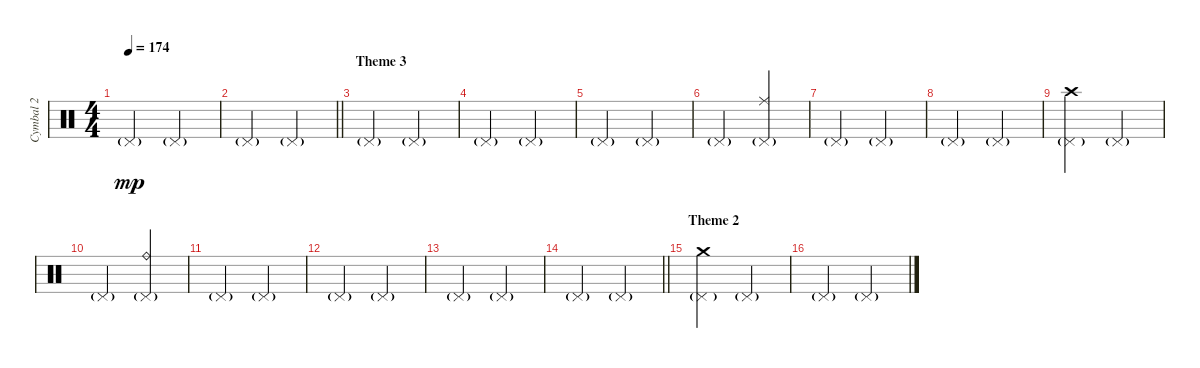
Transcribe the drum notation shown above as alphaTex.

\track ("Cymbal 2" "Cymbal 2") {instrument percussion}
\staff {score}
\articulation defaults
\ts (4 4)
\tempo 174
\clef neutral
\ks c "Pedal Hi-Hat (hit)"{g}.2{dy mp} "Pedal Hi-Hat (hit)"{g}.2
|
\barLineRight lightlight "Pedal Hi-Hat (hit)"{g}.2 "Pedal Hi-Hat (hit)"{g}.2
|
\section ("" "Theme 3")
"Pedal Hi-Hat (hit)"{g}.2 "Pedal Hi-Hat (hit)"{g}.2 |
"Pedal Hi-Hat (hit)"{g}.2 "Pedal Hi-Hat (hit)"{g}.2 |
"Pedal Hi-Hat (hit)"{g}.2 "Pedal Hi-Hat (hit)"{g}.2 |
"Pedal Hi-Hat (hit)"{g}.2 ("Pedal Hi-Hat (hit)"{g} "Ride (middle)").2 |
"Pedal Hi-Hat (hit)"{g}.2 "Pedal Hi-Hat (hit)"{g}.2 |
"Pedal Hi-Hat (hit)"{g}.2 "Pedal Hi-Hat (hit)"{g}.2 |
("Pedal Hi-Hat (hit)"{g} "Crash high (hit)").2 "Pedal Hi-Hat (hit)"{g}.2 |
"Pedal Hi-Hat (hit)"{g}.2 ("Pedal Hi-Hat (hit)"{g} "Ride (bell)").2 |
"Pedal Hi-Hat (hit)"{g}.2 "Pedal Hi-Hat (hit)"{g}.2 |
"Pedal Hi-Hat (hit)"{g}.2 "Pedal Hi-Hat (hit)"{g}.2 |
"Pedal Hi-Hat (hit)"{g}.2 "Pedal Hi-Hat (hit)"{g}.2 |
\barLineRight lightlight "Pedal Hi-Hat (hit)"{g}.2 "Pedal Hi-Hat (hit)"{g}.2
|
\section ("" "Theme 2")
("Pedal Hi-Hat (hit)"{g} "Crash medium (hit)").2 "Pedal Hi-Hat (hit)"{g}.2 |
"Pedal Hi-Hat (hit)"{g}.2 "Pedal Hi-Hat (hit)"{g}.2
